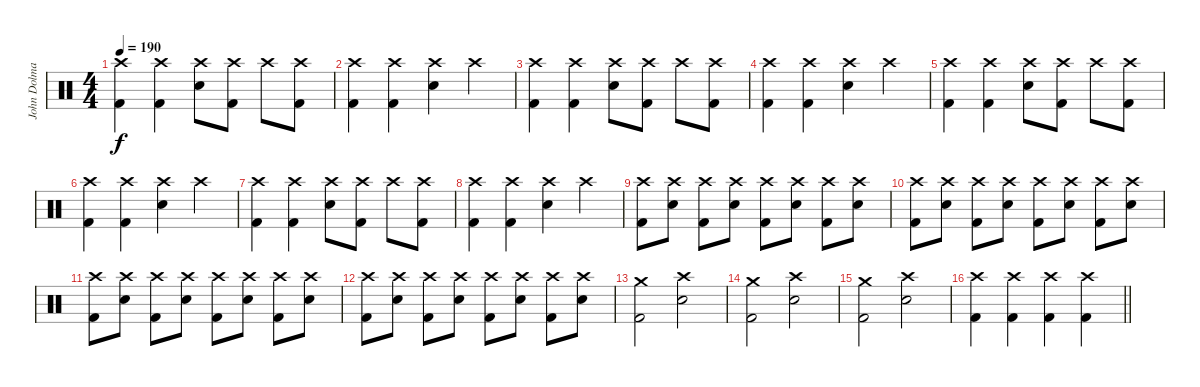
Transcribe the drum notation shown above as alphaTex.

\track ("John Dolmayan" "John Dolma") {instrument percussion}
\staff {score}
\articulation defaults
\ts (4 4)
\tempo 190
\clef neutral
\ks c
("Crash high (hit)" "Kick (hit) 2").4{dy f} ("Crash high (hit)" "Kick (hit) 2").4 ("Crash high (hit)" "Electric Snare (hit)").8 ("Crash high (hit)" "Kick (hit) 2").8 "Crash high (hit)".8 ("Crash high (hit)" "Kick (hit) 2").8 |
("Crash high (hit)" "Kick (hit) 2").4 ("Crash high (hit)" "Kick (hit) 2").4 ("Crash high (hit)" "Electric Snare (hit)").4 "Crash high (hit)".4 |
("Crash high (hit)" "Kick (hit) 2").4 ("Crash high (hit)" "Kick (hit) 2").4 ("Crash high (hit)" "Electric Snare (hit)").8 ("Crash high (hit)" "Kick (hit) 2").8 "Crash high (hit)".8 ("Crash high (hit)" "Kick (hit) 2").8 |
("Crash high (hit)" "Kick (hit) 2").4 ("Crash high (hit)" "Kick (hit) 2").4 ("Crash high (hit)" "Electric Snare (hit)").4 "Crash high (hit)".4 |
("Crash high (hit)" "Kick (hit) 2").4 ("Crash high (hit)" "Kick (hit) 2").4 ("Crash high (hit)" "Electric Snare (hit)").8 ("Crash high (hit)" "Kick (hit) 2").8 "Crash high (hit)".8 ("Crash high (hit)" "Kick (hit) 2").8 |
("Crash high (hit)" "Kick (hit) 2").4 ("Crash high (hit)" "Kick (hit) 2").4 ("Crash high (hit)" "Electric Snare (hit)").4 "Crash high (hit)".4 |
("Crash high (hit)" "Kick (hit) 2").4 ("Crash high (hit)" "Kick (hit) 2").4 ("Crash high (hit)" "Electric Snare (hit)").8 ("Crash high (hit)" "Kick (hit) 2").8 "Crash high (hit)".8 ("Crash high (hit)" "Kick (hit) 2").8 |
("Crash high (hit)" "Kick (hit) 2").4 ("Crash high (hit)" "Kick (hit) 2").4 ("Crash high (hit)" "Electric Snare (hit)").4 "Crash high (hit)".4 |
("Crash high (hit)" "Kick (hit) 2").8 ("Crash high (hit)" "Electric Snare (hit)").8 ("Crash high (hit)" "Kick (hit) 2").8 ("Crash high (hit)" "Electric Snare (hit)").8 ("Crash high (hit)" "Kick (hit) 2").8 ("Crash high (hit)" "Electric Snare (hit)").8 ("Crash high (hit)" "Kick (hit) 2").8 ("Crash high (hit)" "Electric Snare (hit)").8 |
("Crash high (hit)" "Kick (hit) 2").8 ("Crash high (hit)" "Electric Snare (hit)").8 ("Crash high (hit)" "Kick (hit) 2").8 ("Crash high (hit)" "Electric Snare (hit)").8 ("Crash high (hit)" "Kick (hit) 2").8 ("Crash high (hit)" "Electric Snare (hit)").8 ("Crash high (hit)" "Kick (hit) 2").8 ("Crash high (hit)" "Electric Snare (hit)").8 |
("Crash high (hit)" "Kick (hit) 2").8 ("Crash high (hit)" "Electric Snare (hit)").8 ("Crash high (hit)" "Kick (hit) 2").8 ("Crash high (hit)" "Electric Snare (hit)").8 ("Crash high (hit)" "Kick (hit) 2").8 ("Crash high (hit)" "Electric Snare (hit)").8 ("Crash high (hit)" "Kick (hit) 2").8 ("Crash high (hit)" "Electric Snare (hit)").8 |
("Crash high (hit)" "Kick (hit) 2").8 ("Crash high (hit)" "Electric Snare (hit)").8 ("Crash high (hit)" "Kick (hit) 2").8 ("Crash high (hit)" "Electric Snare (hit)").8 ("Crash high (hit)" "Kick (hit) 2").8 ("Crash high (hit)" "Electric Snare (hit)").8 ("Crash high (hit)" "Kick (hit) 2").8 ("Crash high (hit)" "Electric Snare (hit)").8 |
("Crash medium (hit)" "Kick (hit) 2").2 ("Crash high (hit)" "Electric Snare (hit)").2 |
("Crash medium (hit)" "Kick (hit) 2").2 ("Crash high (hit)" "Electric Snare (hit)").2 |
("Crash medium (hit)" "Kick (hit) 2").2 ("Crash high (hit)" "Electric Snare (hit)").2 |
\barLineRight lightlight
("Crash high (hit)" "Kick (hit) 2").4 ("Crash high (hit)" "Kick (hit) 2").4 ("Crash high (hit)" "Kick (hit) 2").4 ("Crash high (hit)" "Kick (hit) 2").4
